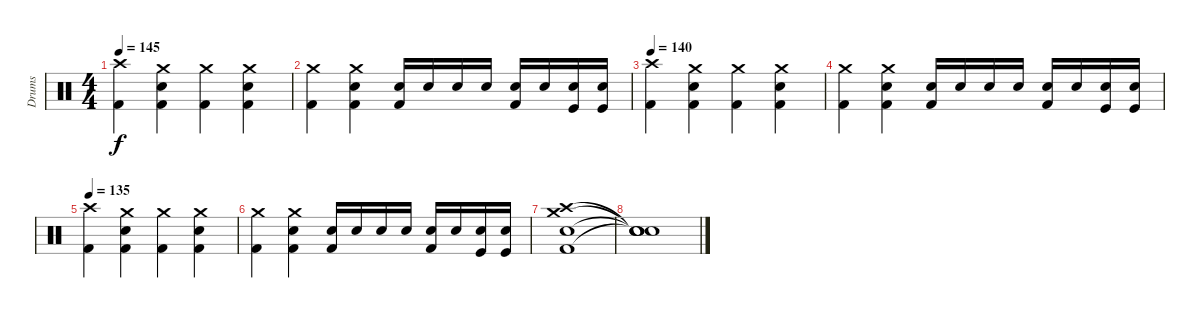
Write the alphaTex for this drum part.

\track ("Drums" "Drums") {instrument percussion}
\staff {score}
\articulation defaults
\ts (4 4)
\tempo 145
\clef neutral
\ks c
("Crash high (hit)" "Kick (hit) 2").4{dy f} ("Electric Snare (hit)" "Crash medium (hit)" "Kick (hit) 2").4 ("Crash medium (hit)" "Kick (hit) 2").4 ("Electric Snare (hit)" "Crash medium (hit)" "Kick (hit) 2").4 |
("Crash medium (hit)" "Kick (hit) 2").4 ("Electric Snare (hit)" "Crash medium (hit)" "Kick (hit) 2").4 ("Electric Snare (hit)" "Kick (hit) 2").16 "Electric Snare (hit)".16 "Electric Snare (hit)".16 "Electric Snare (hit)".16 ("Snare (hit) 2" "Kick (hit) 2").16 "Snare (hit) 2".16 ("Kick (hit)" "Snare (hit) 2").16 ("Kick (hit)" "Snare (hit) 2").16 |
\tempo 140
("Crash high (hit)" "Kick (hit) 2").4 ("Electric Snare (hit)" "Crash medium (hit)" "Kick (hit) 2").4 ("Crash medium (hit)" "Kick (hit) 2").4 ("Electric Snare (hit)" "Crash medium (hit)" "Kick (hit) 2").4 |
("Crash medium (hit)" "Kick (hit) 2").4 ("Electric Snare (hit)" "Crash medium (hit)" "Kick (hit) 2").4 ("Electric Snare (hit)" "Kick (hit) 2").16 "Electric Snare (hit)".16 "Electric Snare (hit)".16 "Electric Snare (hit)".16 ("Snare (hit) 2" "Kick (hit) 2").16 "Snare (hit) 2".16 ("Snare (hit) 2" "Kick (hit)").16 ("Snare (hit) 2" "Kick (hit)").16 |
\tempo 135
("Crash high (hit)" "Kick (hit) 2").4 ("Electric Snare (hit)" "Crash medium (hit)" "Kick (hit) 2").4 ("Crash medium (hit)" "Kick (hit) 2").4 ("Electric Snare (hit)" "Crash medium (hit)" "Kick (hit) 2").4 |
("Crash medium (hit)" "Kick (hit) 2").4 ("Electric Snare (hit)" "Crash medium (hit)" "Kick (hit) 2").4 ("Electric Snare (hit)" "Kick (hit) 2").16 "Electric Snare (hit)".16 "Electric Snare (hit)".16 "Electric Snare (hit)".16 ("Snare (hit) 2" "Kick (hit) 2").16 "Snare (hit) 2".16 ("Kick (hit)" "Snare (hit) 2").16 ("Kick (hit)" "Snare (hit) 2").16 |
("Crash high (hit)" "Electric Snare (hit)" "Kick (hit) 2" "Crash medium (hit)").1 |
("Snare (hit)"{t} "Snare (hit)"{t} "Snare (hit)"{t} "Snare (hit)"{t}).1
